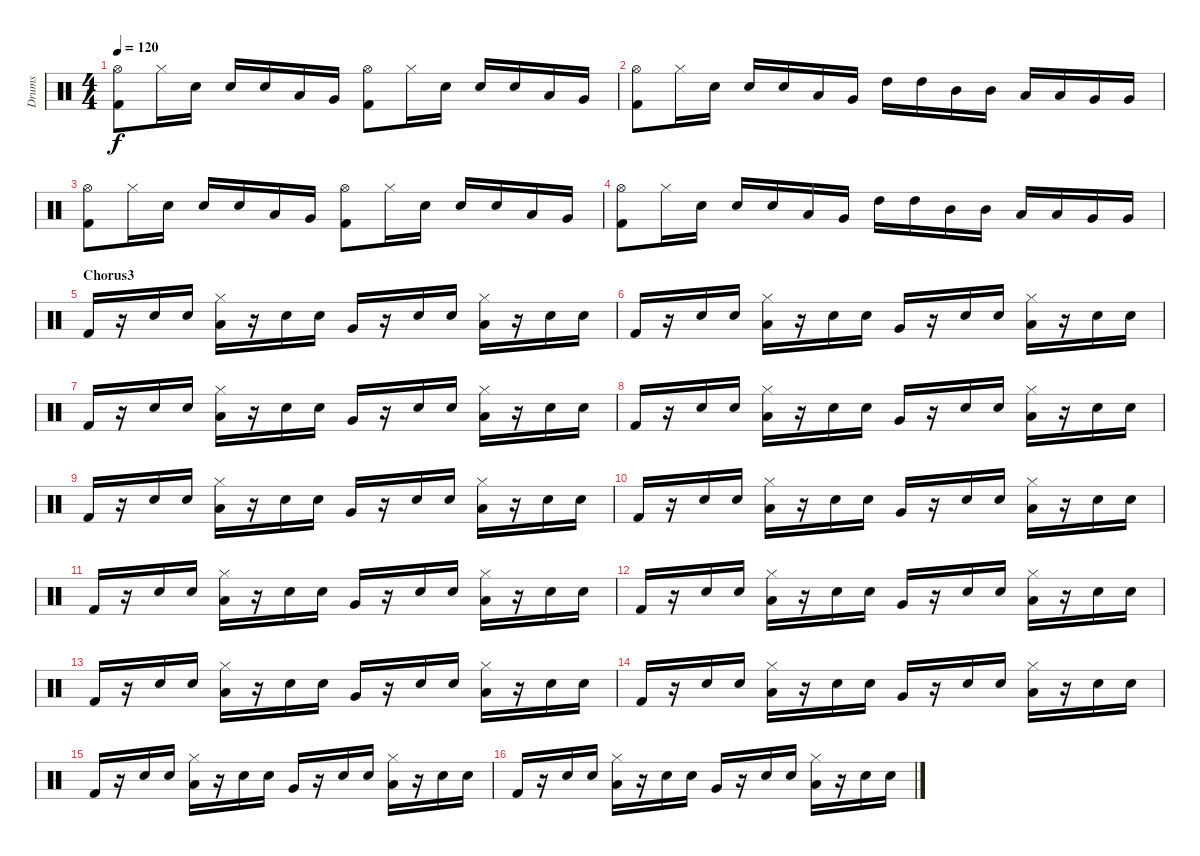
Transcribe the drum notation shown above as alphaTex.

\track ("Drums" "Drums") {instrument percussion}
\staff {score}
\articulation defaults
\ts (4 4)
\tempo 120
\clef neutral
\ks c
("Hi-Hat (open)" "Kick (hit) 2").8{dy f} "Hi-Hat (closed)".16 "Electric Snare (hit)".16 "Electric Snare (hit)".16 "Electric Snare (hit)".16 "Low Floor Tom (hit)".16 "Very Low Tom (hit)".16 ("Hi-Hat (open)" "Kick (hit) 2").8 "Hi-Hat (closed)".16 "Electric Snare (hit)".16 "Electric Snare (hit)".16 "Electric Snare (hit)".16 "Low Floor Tom (hit)".16 "Very Low Tom (hit)".16 |
("Hi-Hat (open)" "Kick (hit) 2").8 "Hi-Hat (closed)".16 "Electric Snare (hit)".16 "Electric Snare (hit)".16 "Electric Snare (hit)".16 "Low Floor Tom (hit)".16 "Very Low Tom (hit)".16 "High Tom (hit)".16 "High Tom (hit)".16 "Mid Tom (hit)".16 "Mid Tom (hit)".16 "Low Tom (hit)".16 "Low Tom (hit)".16 "Very Low Tom (hit)".16 "Very Low Tom (hit)".16 |
("Hi-Hat (open)" "Kick (hit) 2").8 "Hi-Hat (closed)".16 "Electric Snare (hit)".16 "Electric Snare (hit)".16 "Electric Snare (hit)".16 "Low Floor Tom (hit)".16 "Very Low Tom (hit)".16 ("Hi-Hat (open)" "Kick (hit) 2").8 "Hi-Hat (closed)".16 "Electric Snare (hit)".16 "Electric Snare (hit)".16 "Electric Snare (hit)".16 "Low Floor Tom (hit)".16 "Very Low Tom (hit)".16 |
("Hi-Hat (open)" "Kick (hit) 2").8 "Hi-Hat (closed)".16 "Electric Snare (hit)".16 "Electric Snare (hit)".16 "Electric Snare (hit)".16 "Low Floor Tom (hit)".16 "Very Low Tom (hit)".16 "High Tom (hit)".16 "High Tom (hit)".16 "Mid Tom (hit)".16 "Mid Tom (hit)".16 "Low Tom (hit)".16 "Low Tom (hit)".16 "Very Low Tom (hit)".16 "Very Low Tom (hit)".16 |
\section ("" "Chorus3")
"Kick (hit) 2".16 r.16 "Electric Snare (hit)".16 "Electric Snare (hit)".16 ("Hi-Hat (closed)" "Low Floor Tom (hit)").16 r.16 "Electric Snare (hit)".16 "Electric Snare (hit)".16 "Very Low Tom (hit)".16 r.16 "Electric Snare (hit)".16 "Electric Snare (hit)".16 ("Hi-Hat (closed)" "Low Floor Tom (hit)").16 r.16 "Electric Snare (hit)".16 "Electric Snare (hit)".16 |
"Kick (hit) 2".16 r.16 "Electric Snare (hit)".16 "Electric Snare (hit)".16 ("Hi-Hat (closed)" "Low Floor Tom (hit)").16 r.16 "Electric Snare (hit)".16 "Electric Snare (hit)".16 "Very Low Tom (hit)".16 r.16 "Electric Snare (hit)".16 "Electric Snare (hit)".16 ("Hi-Hat (closed)" "Low Floor Tom (hit)").16 r.16 "Electric Snare (hit)".16 "Electric Snare (hit)".16 |
"Kick (hit) 2".16 r.16 "Electric Snare (hit)".16 "Electric Snare (hit)".16 ("Hi-Hat (closed)" "Low Floor Tom (hit)").16 r.16 "Electric Snare (hit)".16 "Electric Snare (hit)".16 "Very Low Tom (hit)".16 r.16 "Electric Snare (hit)".16 "Electric Snare (hit)".16 ("Hi-Hat (closed)" "Low Floor Tom (hit)").16 r.16 "Electric Snare (hit)".16 "Electric Snare (hit)".16 |
"Kick (hit) 2".16 r.16 "Electric Snare (hit)".16 "Electric Snare (hit)".16 ("Hi-Hat (closed)" "Low Floor Tom (hit)").16 r.16 "Electric Snare (hit)".16 "Electric Snare (hit)".16 "Very Low Tom (hit)".16 r.16 "Electric Snare (hit)".16 "Electric Snare (hit)".16 ("Hi-Hat (closed)" "Low Floor Tom (hit)").16 r.16 "Electric Snare (hit)".16 "Electric Snare (hit)".16 |
"Kick (hit) 2".16 r.16 "Electric Snare (hit)".16 "Electric Snare (hit)".16 ("Hi-Hat (closed)" "Low Floor Tom (hit)").16 r.16 "Electric Snare (hit)".16 "Electric Snare (hit)".16 "Very Low Tom (hit)".16 r.16 "Electric Snare (hit)".16 "Electric Snare (hit)".16 ("Hi-Hat (closed)" "Low Floor Tom (hit)").16 r.16 "Electric Snare (hit)".16 "Electric Snare (hit)".16 |
"Kick (hit) 2".16 r.16 "Electric Snare (hit)".16 "Electric Snare (hit)".16 ("Hi-Hat (closed)" "Low Floor Tom (hit)").16 r.16 "Electric Snare (hit)".16 "Electric Snare (hit)".16 "Very Low Tom (hit)".16 r.16 "Electric Snare (hit)".16 "Electric Snare (hit)".16 ("Hi-Hat (closed)" "Low Floor Tom (hit)").16 r.16 "Electric Snare (hit)".16 "Electric Snare (hit)".16 |
"Kick (hit) 2".16 r.16 "Electric Snare (hit)".16 "Electric Snare (hit)".16 ("Hi-Hat (closed)" "Low Floor Tom (hit)").16 r.16 "Electric Snare (hit)".16 "Electric Snare (hit)".16 "Very Low Tom (hit)".16 r.16 "Electric Snare (hit)".16 "Electric Snare (hit)".16 ("Hi-Hat (closed)" "Low Floor Tom (hit)").16 r.16 "Electric Snare (hit)".16 "Electric Snare (hit)".16 |
"Kick (hit) 2".16 r.16 "Electric Snare (hit)".16 "Electric Snare (hit)".16 ("Hi-Hat (closed)" "Low Floor Tom (hit)").16 r.16 "Electric Snare (hit)".16 "Electric Snare (hit)".16 "Very Low Tom (hit)".16 r.16 "Electric Snare (hit)".16 "Electric Snare (hit)".16 ("Hi-Hat (closed)" "Low Floor Tom (hit)").16 r.16 "Electric Snare (hit)".16 "Electric Snare (hit)".16 |
"Kick (hit) 2".16 r.16 "Electric Snare (hit)".16 "Electric Snare (hit)".16 ("Hi-Hat (closed)" "Low Floor Tom (hit)").16 r.16 "Electric Snare (hit)".16 "Electric Snare (hit)".16 "Very Low Tom (hit)".16 r.16 "Electric Snare (hit)".16 "Electric Snare (hit)".16 ("Hi-Hat (closed)" "Low Floor Tom (hit)").16 r.16 "Electric Snare (hit)".16 "Electric Snare (hit)".16 |
"Kick (hit) 2".16 r.16 "Electric Snare (hit)".16 "Electric Snare (hit)".16 ("Hi-Hat (closed)" "Low Floor Tom (hit)").16 r.16 "Electric Snare (hit)".16 "Electric Snare (hit)".16 "Very Low Tom (hit)".16 r.16 "Electric Snare (hit)".16 "Electric Snare (hit)".16 ("Hi-Hat (closed)" "Low Floor Tom (hit)").16 r.16 "Electric Snare (hit)".16 "Electric Snare (hit)".16 |
"Kick (hit) 2".16 r.16 "Electric Snare (hit)".16 "Electric Snare (hit)".16 ("Hi-Hat (closed)" "Low Floor Tom (hit)").16 r.16 "Electric Snare (hit)".16 "Electric Snare (hit)".16 "Very Low Tom (hit)".16 r.16 "Electric Snare (hit)".16 "Electric Snare (hit)".16 ("Hi-Hat (closed)" "Low Floor Tom (hit)").16 r.16 "Electric Snare (hit)".16 "Electric Snare (hit)".16 |
"Kick (hit) 2".16 r.16 "Electric Snare (hit)".16 "Electric Snare (hit)".16 ("Hi-Hat (closed)" "Low Floor Tom (hit)").16 r.16 "Electric Snare (hit)".16 "Electric Snare (hit)".16 "Very Low Tom (hit)".16 r.16 "Electric Snare (hit)".16 "Electric Snare (hit)".16 ("Hi-Hat (closed)" "Low Floor Tom (hit)").16 r.16 "Electric Snare (hit)".16 "Electric Snare (hit)".16
